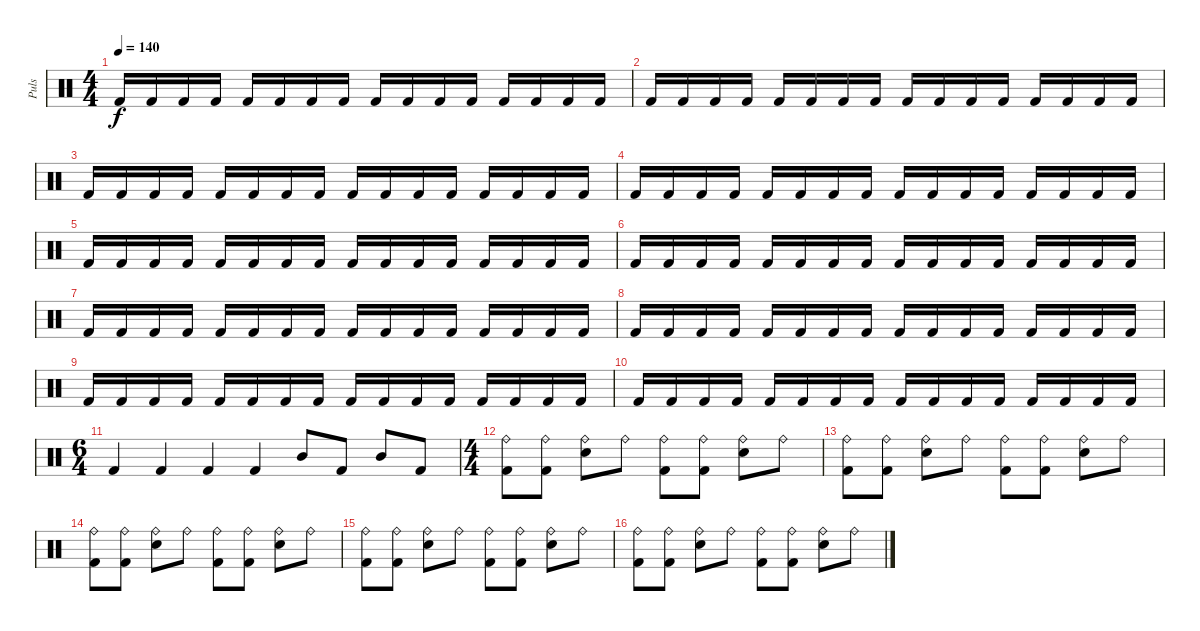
\track ("Puls" "Puls") {instrument percussion}
\staff {score}
\articulation defaults
\ts (4 4)
\tempo 140
\clef neutral
\ks c "Kick (hit) 2".16{dy f} "Kick (hit) 2".16 "Kick (hit) 2".16 "Kick (hit) 2".16 "Kick (hit) 2".16 "Kick (hit) 2".16 "Kick (hit) 2".16 "Kick (hit) 2".16 "Kick (hit) 2".16 "Kick (hit) 2".16 "Kick (hit) 2".16 "Kick (hit) 2".16 "Kick (hit) 2".16 "Kick (hit) 2".16 "Kick (hit) 2".16 "Kick (hit) 2".16
|
"Kick (hit) 2".16 "Kick (hit) 2".16 "Kick (hit) 2".16 "Kick (hit) 2".16 "Kick (hit) 2".16 "Kick (hit) 2".16 "Kick (hit) 2".16 "Kick (hit) 2".16 "Kick (hit) 2".16 "Kick (hit) 2".16 "Kick (hit) 2".16 "Kick (hit) 2".16 "Kick (hit) 2".16 "Kick (hit) 2".16 "Kick (hit) 2".16 "Kick (hit) 2".16 |
"Kick (hit) 2".16 "Kick (hit) 2".16 "Kick (hit) 2".16 "Kick (hit) 2".16 "Kick (hit) 2".16 "Kick (hit) 2".16 "Kick (hit) 2".16 "Kick (hit) 2".16 "Kick (hit) 2".16 "Kick (hit) 2".16 "Kick (hit) 2".16 "Kick (hit) 2".16 "Kick (hit) 2".16 "Kick (hit) 2".16 "Kick (hit) 2".16 "Kick (hit) 2".16 |
"Kick (hit) 2".16 "Kick (hit) 2".16 "Kick (hit) 2".16 "Kick (hit) 2".16 "Kick (hit) 2".16 "Kick (hit) 2".16 "Kick (hit) 2".16 "Kick (hit) 2".16 "Kick (hit) 2".16 "Kick (hit) 2".16 "Kick (hit) 2".16 "Kick (hit) 2".16 "Kick (hit) 2".16 "Kick (hit) 2".16 "Kick (hit) 2".16 "Kick (hit) 2".16 |
"Kick (hit) 2".16 "Kick (hit) 2".16 "Kick (hit) 2".16 "Kick (hit) 2".16 "Kick (hit) 2".16 "Kick (hit) 2".16 "Kick (hit) 2".16 "Kick (hit) 2".16 "Kick (hit) 2".16 "Kick (hit) 2".16 "Kick (hit) 2".16 "Kick (hit) 2".16 "Kick (hit) 2".16 "Kick (hit) 2".16 "Kick (hit) 2".16 "Kick (hit) 2".16 |
"Kick (hit) 2".16 "Kick (hit) 2".16 "Kick (hit) 2".16 "Kick (hit) 2".16 "Kick (hit) 2".16 "Kick (hit) 2".16 "Kick (hit) 2".16 "Kick (hit) 2".16 "Kick (hit) 2".16 "Kick (hit) 2".16 "Kick (hit) 2".16 "Kick (hit) 2".16 "Kick (hit) 2".16 "Kick (hit) 2".16 "Kick (hit) 2".16 "Kick (hit) 2".16 |
"Kick (hit) 2".16 "Kick (hit) 2".16 "Kick (hit) 2".16 "Kick (hit) 2".16 "Kick (hit) 2".16 "Kick (hit) 2".16 "Kick (hit) 2".16 "Kick (hit) 2".16 "Kick (hit) 2".16 "Kick (hit) 2".16 "Kick (hit) 2".16 "Kick (hit) 2".16 "Kick (hit) 2".16 "Kick (hit) 2".16 "Kick (hit) 2".16 "Kick (hit) 2".16 |
"Kick (hit) 2".16 "Kick (hit) 2".16 "Kick (hit) 2".16 "Kick (hit) 2".16 "Kick (hit) 2".16 "Kick (hit) 2".16 "Kick (hit) 2".16 "Kick (hit) 2".16 "Kick (hit) 2".16 "Kick (hit) 2".16 "Kick (hit) 2".16 "Kick (hit) 2".16 "Kick (hit) 2".16 "Kick (hit) 2".16 "Kick (hit) 2".16 "Kick (hit) 2".16 |
"Kick (hit) 2".16 "Kick (hit) 2".16 "Kick (hit) 2".16 "Kick (hit) 2".16 "Kick (hit) 2".16 "Kick (hit) 2".16 "Kick (hit) 2".16 "Kick (hit) 2".16 "Kick (hit) 2".16 "Kick (hit) 2".16 "Kick (hit) 2".16 "Kick (hit) 2".16 "Kick (hit) 2".16 "Kick (hit) 2".16 "Kick (hit) 2".16 "Kick (hit) 2".16 |
"Kick (hit) 2".16 "Kick (hit) 2".16 "Kick (hit) 2".16 "Kick (hit) 2".16 "Kick (hit) 2".16 "Kick (hit) 2".16 "Kick (hit) 2".16 "Kick (hit) 2".16 "Kick (hit) 2".16 "Kick (hit) 2".16 "Kick (hit) 2".16 "Kick (hit) 2".16 "Kick (hit) 2".16 "Kick (hit) 2".16 "Kick (hit) 2".16 "Kick (hit) 2".16 |
\ts (6 4)
"Kick (hit) 2".4 "Kick (hit) 2".4 "Kick (hit) 2".4 "Kick (hit) 2".4 "Mid Tom (hit)".8 "Kick (hit) 2".8 "Mid Tom (hit)".8 "Kick (hit) 2".8 |
\ts (4 4)
("Ride (bell)" "Kick (hit) 2").8 ("Ride (bell)" "Kick (hit) 2").8 ("Ride (bell)" "Snare (hit) 2").8 "Ride (bell)".8 ("Ride (bell)" "Kick (hit) 2").8 ("Ride (bell)" "Kick (hit) 2").8 ("Ride (bell)" "Snare (hit) 2").8 "Ride (bell)".8 |
("Ride (bell)" "Kick (hit) 2").8 ("Ride (bell)" "Kick (hit) 2").8 ("Ride (bell)" "Snare (hit) 2").8 "Ride (bell)".8 ("Ride (bell)" "Kick (hit) 2").8 ("Ride (bell)" "Kick (hit) 2").8 ("Ride (bell)" "Snare (hit) 2").8 "Ride (bell)".8 |
("Ride (bell)" "Kick (hit) 2").8 ("Ride (bell)" "Kick (hit) 2").8 ("Ride (bell)" "Snare (hit) 2").8 "Ride (bell)".8 ("Ride (bell)" "Kick (hit) 2").8 ("Ride (bell)" "Kick (hit) 2").8 ("Ride (bell)" "Snare (hit) 2").8 "Ride (bell)".8 |
("Ride (bell)" "Kick (hit) 2").8 ("Ride (bell)" "Kick (hit) 2").8 ("Ride (bell)" "Snare (hit) 2").8 "Ride (bell)".8 ("Ride (bell)" "Kick (hit) 2").8 ("Ride (bell)" "Kick (hit) 2").8 ("Ride (bell)" "Snare (hit) 2").8 "Ride (bell)".8 |
("Ride (bell)" "Kick (hit) 2").8 ("Ride (bell)" "Kick (hit) 2").8 ("Ride (bell)" "Snare (hit) 2").8 "Ride (bell)".8 ("Ride (bell)" "Kick (hit) 2").8 ("Ride (bell)" "Kick (hit) 2").8 ("Ride (bell)" "Snare (hit) 2").8 "Ride (bell)".8
